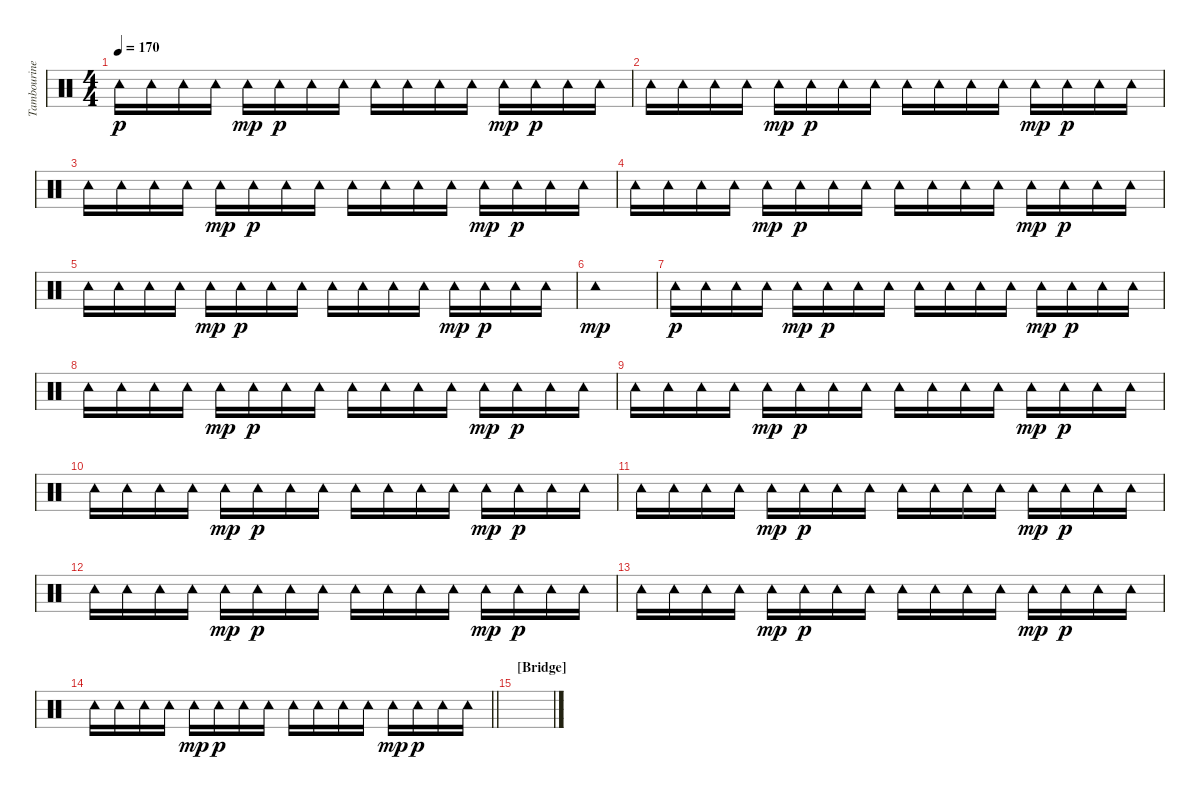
\track ("Tambourine" "Tambourine") {instrument percussion}
\staff {score}
\articulation defaults
\ts (4 4)
\tempo 170
\clef neutral
\ks c "Tambourine (hit)".16{dy p} "Tambourine (hit)".16 "Tambourine (hit)".16 "Tambourine (hit)".16 "Tambourine (hit)".16{dy mp} "Tambourine (hit)".16{dy p} "Tambourine (hit)".16 "Tambourine (hit)".16 "Tambourine (hit)".16 "Tambourine (hit)".16 "Tambourine (hit)".16 "Tambourine (hit)".16 "Tambourine (hit)".16{dy mp} "Tambourine (hit)".16{dy p} "Tambourine (hit)".16 "Tambourine (hit)".16
|
"Tambourine (hit)".16 "Tambourine (hit)".16 "Tambourine (hit)".16 "Tambourine (hit)".16 "Tambourine (hit)".16{dy mp} "Tambourine (hit)".16{dy p} "Tambourine (hit)".16 "Tambourine (hit)".16 "Tambourine (hit)".16 "Tambourine (hit)".16 "Tambourine (hit)".16 "Tambourine (hit)".16 "Tambourine (hit)".16{dy mp} "Tambourine (hit)".16{dy p} "Tambourine (hit)".16 "Tambourine (hit)".16 |
"Tambourine (hit)".16 "Tambourine (hit)".16 "Tambourine (hit)".16 "Tambourine (hit)".16 "Tambourine (hit)".16{dy mp} "Tambourine (hit)".16{dy p} "Tambourine (hit)".16 "Tambourine (hit)".16 "Tambourine (hit)".16 "Tambourine (hit)".16 "Tambourine (hit)".16 "Tambourine (hit)".16 "Tambourine (hit)".16{dy mp} "Tambourine (hit)".16{dy p} "Tambourine (hit)".16 "Tambourine (hit)".16 |
"Tambourine (hit)".16 "Tambourine (hit)".16 "Tambourine (hit)".16 "Tambourine (hit)".16 "Tambourine (hit)".16{dy mp} "Tambourine (hit)".16{dy p} "Tambourine (hit)".16 "Tambourine (hit)".16 "Tambourine (hit)".16 "Tambourine (hit)".16 "Tambourine (hit)".16 "Tambourine (hit)".16 "Tambourine (hit)".16{dy mp} "Tambourine (hit)".16{dy p} "Tambourine (hit)".16 "Tambourine (hit)".16 |
"Tambourine (hit)".16 "Tambourine (hit)".16 "Tambourine (hit)".16 "Tambourine (hit)".16 "Tambourine (hit)".16{dy mp} "Tambourine (hit)".16{dy p} "Tambourine (hit)".16 "Tambourine (hit)".16 "Tambourine (hit)".16 "Tambourine (hit)".16 "Tambourine (hit)".16 "Tambourine (hit)".16 "Tambourine (hit)".16{dy mp} "Tambourine (hit)".16{dy p} "Tambourine (hit)".16 "Tambourine (hit)".16 |
"Tambourine (hit)".1{dy mp} |
"Tambourine (hit)".16{dy p} "Tambourine (hit)".16 "Tambourine (hit)".16 "Tambourine (hit)".16 "Tambourine (hit)".16{dy mp} "Tambourine (hit)".16{dy p} "Tambourine (hit)".16 "Tambourine (hit)".16 "Tambourine (hit)".16 "Tambourine (hit)".16 "Tambourine (hit)".16 "Tambourine (hit)".16 "Tambourine (hit)".16{dy mp} "Tambourine (hit)".16{dy p} "Tambourine (hit)".16 "Tambourine (hit)".16 |
"Tambourine (hit)".16 "Tambourine (hit)".16 "Tambourine (hit)".16 "Tambourine (hit)".16 "Tambourine (hit)".16{dy mp} "Tambourine (hit)".16{dy p} "Tambourine (hit)".16 "Tambourine (hit)".16 "Tambourine (hit)".16 "Tambourine (hit)".16 "Tambourine (hit)".16 "Tambourine (hit)".16 "Tambourine (hit)".16{dy mp} "Tambourine (hit)".16{dy p} "Tambourine (hit)".16 "Tambourine (hit)".16 |
"Tambourine (hit)".16 "Tambourine (hit)".16 "Tambourine (hit)".16 "Tambourine (hit)".16 "Tambourine (hit)".16{dy mp} "Tambourine (hit)".16{dy p} "Tambourine (hit)".16 "Tambourine (hit)".16 "Tambourine (hit)".16 "Tambourine (hit)".16 "Tambourine (hit)".16 "Tambourine (hit)".16 "Tambourine (hit)".16{dy mp} "Tambourine (hit)".16{dy p} "Tambourine (hit)".16 "Tambourine (hit)".16 |
"Tambourine (hit)".16 "Tambourine (hit)".16 "Tambourine (hit)".16 "Tambourine (hit)".16 "Tambourine (hit)".16{dy mp} "Tambourine (hit)".16{dy p} "Tambourine (hit)".16 "Tambourine (hit)".16 "Tambourine (hit)".16 "Tambourine (hit)".16 "Tambourine (hit)".16 "Tambourine (hit)".16 "Tambourine (hit)".16{dy mp} "Tambourine (hit)".16{dy p} "Tambourine (hit)".16 "Tambourine (hit)".16 |
"Tambourine (hit)".16 "Tambourine (hit)".16 "Tambourine (hit)".16 "Tambourine (hit)".16 "Tambourine (hit)".16{dy mp} "Tambourine (hit)".16{dy p} "Tambourine (hit)".16 "Tambourine (hit)".16 "Tambourine (hit)".16 "Tambourine (hit)".16 "Tambourine (hit)".16 "Tambourine (hit)".16 "Tambourine (hit)".16{dy mp} "Tambourine (hit)".16{dy p} "Tambourine (hit)".16 "Tambourine (hit)".16 |
"Tambourine (hit)".16 "Tambourine (hit)".16 "Tambourine (hit)".16 "Tambourine (hit)".16 "Tambourine (hit)".16{dy mp} "Tambourine (hit)".16{dy p} "Tambourine (hit)".16 "Tambourine (hit)".16 "Tambourine (hit)".16 "Tambourine (hit)".16 "Tambourine (hit)".16 "Tambourine (hit)".16 "Tambourine (hit)".16{dy mp} "Tambourine (hit)".16{dy p} "Tambourine (hit)".16 "Tambourine (hit)".16 |
"Tambourine (hit)".16 "Tambourine (hit)".16 "Tambourine (hit)".16 "Tambourine (hit)".16 "Tambourine (hit)".16{dy mp} "Tambourine (hit)".16{dy p} "Tambourine (hit)".16 "Tambourine (hit)".16 "Tambourine (hit)".16 "Tambourine (hit)".16 "Tambourine (hit)".16 "Tambourine (hit)".16 "Tambourine (hit)".16{dy mp} "Tambourine (hit)".16{dy p} "Tambourine (hit)".16 "Tambourine (hit)".16 |
\barLineRight lightlight "Tambourine (hit)".16 "Tambourine (hit)".16 "Tambourine (hit)".16 "Tambourine (hit)".16 "Tambourine (hit)".16{dy mp} "Tambourine (hit)".16{dy p} "Tambourine (hit)".16 "Tambourine (hit)".16 "Tambourine (hit)".16 "Tambourine (hit)".16 "Tambourine (hit)".16 "Tambourine (hit)".16 "Tambourine (hit)".16{dy mp} "Tambourine (hit)".16{dy p} "Tambourine (hit)".16 "Tambourine (hit)".16
|
\section ("" "[Bridge]")
